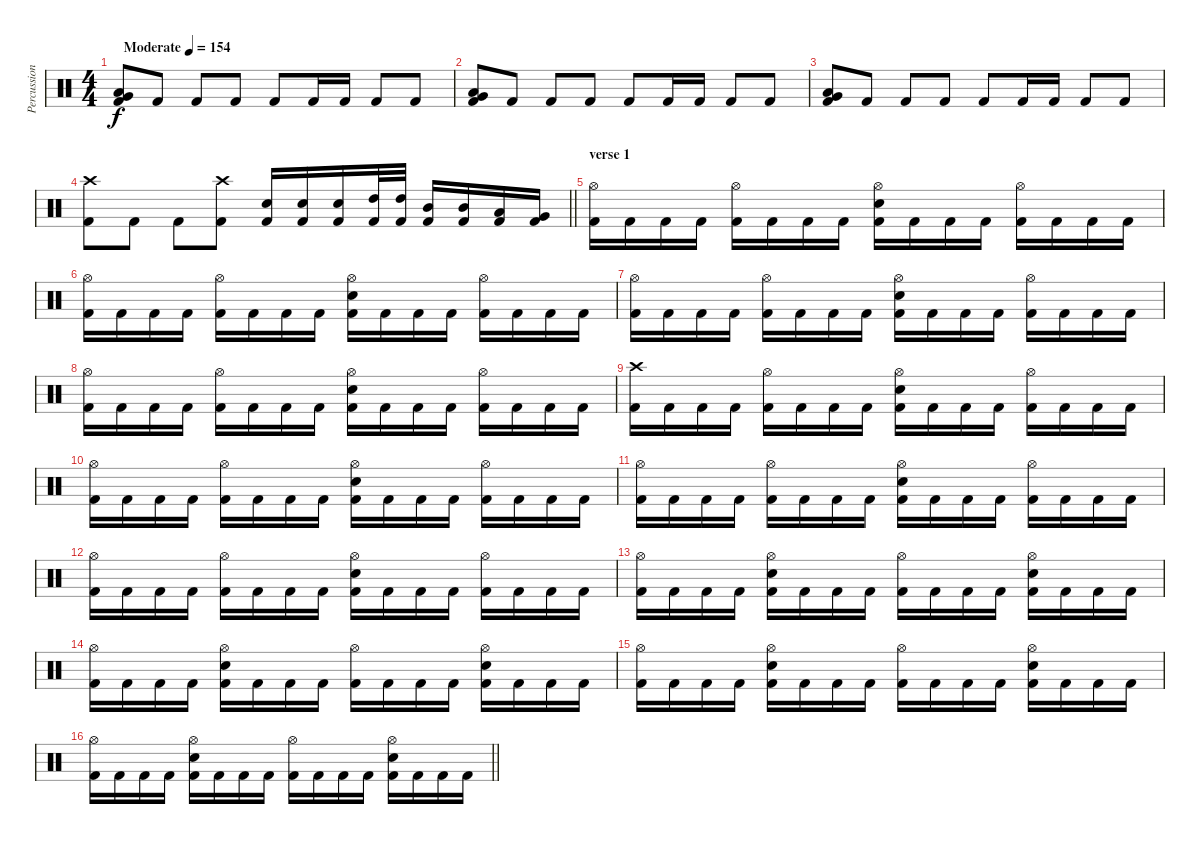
\track ("Percussion" "Percussion") {instrument percussion}
\staff {score}
\articulation defaults
\ts (4 4)
\tempo (154 "Moderate")
\clef neutral
\ks c
("Kick (hit) 2" "Low Tom (hit)" "Very Low Tom (hit)").8{dy f} "Kick (hit) 2".8 "Kick (hit) 2".8 "Kick (hit) 2".8 "Kick (hit) 2".8 "Kick (hit) 2".16 "Kick (hit) 2".16 "Kick (hit) 2".8 "Kick (hit) 2".8 |
("Kick (hit) 2" "Low Tom (hit)" "Very Low Tom (hit)").8 "Kick (hit) 2".8 "Kick (hit) 2".8 "Kick (hit) 2".8 "Kick (hit) 2".8 "Kick (hit) 2".16 "Kick (hit) 2".16 "Kick (hit) 2".8 "Kick (hit) 2".8 |
("Kick (hit) 2" "Low Tom (hit)" "Very Low Tom (hit)").8 "Kick (hit) 2".8 "Kick (hit) 2".8 "Kick (hit) 2".8 "Kick (hit) 2".8 "Kick (hit) 2".16 "Kick (hit) 2".16 "Kick (hit) 2".8 "Kick (hit) 2".8 |
\barLineRight lightlight
("Kick (hit) 2" "Crash high (hit)").8 "Kick (hit) 2".8 "Kick (hit) 2".8 ("Kick (hit) 2" "Crash high (hit)").8 ("Kick (hit) 2" "Electric Snare (hit)").16 ("Kick (hit) 2" "Electric Snare (hit)").16 ("Kick (hit) 2" "Electric Snare (hit)").16 ("Kick (hit) 2" "High Tom (hit)").32 ("Kick (hit) 2" "High Tom (hit)").32 ("Kick (hit) 2" "Mid Tom (hit)").16 ("Kick (hit) 2" "Mid Tom (hit)").16 ("Kick (hit) 2" "Low Tom (hit)").16 ("Kick (hit) 2" "Very Low Tom (hit)").16 |
\section ("" "verse 1")
("Kick (hit) 2" "Hi-Hat (open)").16 "Kick (hit) 2".16 "Kick (hit) 2".16 "Kick (hit) 2".16 ("Kick (hit) 2" "Hi-Hat (open)").16 "Kick (hit) 2".16 "Kick (hit) 2".16 "Kick (hit) 2".16 ("Kick (hit) 2" "Hi-Hat (open)" "Electric Snare (hit)").16 "Kick (hit) 2".16 "Kick (hit) 2".16 "Kick (hit) 2".16 ("Kick (hit) 2" "Hi-Hat (open)").16 "Kick (hit) 2".16 "Kick (hit) 2".16 "Kick (hit) 2".16 |
("Kick (hit) 2" "Hi-Hat (open)").16 "Kick (hit) 2".16 "Kick (hit) 2".16 "Kick (hit) 2".16 ("Kick (hit) 2" "Hi-Hat (open)").16 "Kick (hit) 2".16 "Kick (hit) 2".16 "Kick (hit) 2".16 ("Kick (hit) 2" "Hi-Hat (open)" "Electric Snare (hit)").16 "Kick (hit) 2".16 "Kick (hit) 2".16 "Kick (hit) 2".16 ("Kick (hit) 2" "Hi-Hat (open)").16 "Kick (hit) 2".16 "Kick (hit) 2".16 "Kick (hit) 2".16 |
("Kick (hit) 2" "Hi-Hat (open)").16 "Kick (hit) 2".16 "Kick (hit) 2".16 "Kick (hit) 2".16 ("Kick (hit) 2" "Hi-Hat (open)").16 "Kick (hit) 2".16 "Kick (hit) 2".16 "Kick (hit) 2".16 ("Kick (hit) 2" "Hi-Hat (open)" "Electric Snare (hit)").16 "Kick (hit) 2".16 "Kick (hit) 2".16 "Kick (hit) 2".16 ("Kick (hit) 2" "Hi-Hat (open)").16 "Kick (hit) 2".16 "Kick (hit) 2".16 "Kick (hit) 2".16 |
("Kick (hit) 2" "Hi-Hat (open)").16 "Kick (hit) 2".16 "Kick (hit) 2".16 "Kick (hit) 2".16 ("Kick (hit) 2" "Hi-Hat (open)").16 "Kick (hit) 2".16 "Kick (hit) 2".16 "Kick (hit) 2".16 ("Kick (hit) 2" "Hi-Hat (open)" "Electric Snare (hit)").16 "Kick (hit) 2".16 "Kick (hit) 2".16 "Kick (hit) 2".16 ("Kick (hit) 2" "Hi-Hat (open)").16 "Kick (hit) 2".16 "Kick (hit) 2".16 "Kick (hit) 2".16 |
("Kick (hit) 2" "Crash high (hit)").16 "Kick (hit) 2".16 "Kick (hit) 2".16 "Kick (hit) 2".16 ("Kick (hit) 2" "Hi-Hat (open)").16 "Kick (hit) 2".16 "Kick (hit) 2".16 "Kick (hit) 2".16 ("Kick (hit) 2" "Hi-Hat (open)" "Electric Snare (hit)").16 "Kick (hit) 2".16 "Kick (hit) 2".16 "Kick (hit) 2".16 ("Kick (hit) 2" "Hi-Hat (open)").16 "Kick (hit) 2".16 "Kick (hit) 2".16 "Kick (hit) 2".16 |
("Kick (hit) 2" "Hi-Hat (open)").16 "Kick (hit) 2".16 "Kick (hit) 2".16 "Kick (hit) 2".16 ("Kick (hit) 2" "Hi-Hat (open)").16 "Kick (hit) 2".16 "Kick (hit) 2".16 "Kick (hit) 2".16 ("Kick (hit) 2" "Hi-Hat (open)" "Electric Snare (hit)").16 "Kick (hit) 2".16 "Kick (hit) 2".16 "Kick (hit) 2".16 ("Kick (hit) 2" "Hi-Hat (open)").16 "Kick (hit) 2".16 "Kick (hit) 2".16 "Kick (hit) 2".16 |
("Kick (hit) 2" "Hi-Hat (open)").16 "Kick (hit) 2".16 "Kick (hit) 2".16 "Kick (hit) 2".16 ("Kick (hit) 2" "Hi-Hat (open)").16 "Kick (hit) 2".16 "Kick (hit) 2".16 "Kick (hit) 2".16 ("Kick (hit) 2" "Hi-Hat (open)" "Electric Snare (hit)").16 "Kick (hit) 2".16 "Kick (hit) 2".16 "Kick (hit) 2".16 ("Kick (hit) 2" "Hi-Hat (open)").16 "Kick (hit) 2".16 "Kick (hit) 2".16 "Kick (hit) 2".16 |
("Kick (hit) 2" "Hi-Hat (open)").16 "Kick (hit) 2".16 "Kick (hit) 2".16 "Kick (hit) 2".16 ("Kick (hit) 2" "Hi-Hat (open)").16 "Kick (hit) 2".16 "Kick (hit) 2".16 "Kick (hit) 2".16 ("Kick (hit) 2" "Hi-Hat (open)" "Electric Snare (hit)").16 "Kick (hit) 2".16 "Kick (hit) 2".16 "Kick (hit) 2".16 ("Kick (hit) 2" "Hi-Hat (open)").16 "Kick (hit) 2".16 "Kick (hit) 2".16 "Kick (hit) 2".16 |
("Kick (hit) 2" "Hi-Hat (open)").16 "Kick (hit) 2".16 "Kick (hit) 2".16 "Kick (hit) 2".16 ("Kick (hit) 2" "Hi-Hat (open)" "Electric Snare (hit)").16 "Kick (hit) 2".16 "Kick (hit) 2".16 "Kick (hit) 2".16 ("Kick (hit) 2" "Hi-Hat (open)").16 "Kick (hit) 2".16 "Kick (hit) 2".16 "Kick (hit) 2".16 ("Kick (hit) 2" "Hi-Hat (open)" "Electric Snare (hit)").16 "Kick (hit) 2".16 "Kick (hit) 2".16 "Kick (hit) 2".16 |
("Kick (hit) 2" "Hi-Hat (open)").16 "Kick (hit) 2".16 "Kick (hit) 2".16 "Kick (hit) 2".16 ("Kick (hit) 2" "Hi-Hat (open)" "Electric Snare (hit)").16 "Kick (hit) 2".16 "Kick (hit) 2".16 "Kick (hit) 2".16 ("Kick (hit) 2" "Hi-Hat (open)").16 "Kick (hit) 2".16 "Kick (hit) 2".16 "Kick (hit) 2".16 ("Kick (hit) 2" "Hi-Hat (open)" "Electric Snare (hit)").16 "Kick (hit) 2".16 "Kick (hit) 2".16 "Kick (hit) 2".16 |
("Kick (hit) 2" "Hi-Hat (open)").16 "Kick (hit) 2".16 "Kick (hit) 2".16 "Kick (hit) 2".16 ("Kick (hit) 2" "Hi-Hat (open)" "Electric Snare (hit)").16 "Kick (hit) 2".16 "Kick (hit) 2".16 "Kick (hit) 2".16 ("Kick (hit) 2" "Hi-Hat (open)").16 "Kick (hit) 2".16 "Kick (hit) 2".16 "Kick (hit) 2".16 ("Kick (hit) 2" "Hi-Hat (open)" "Electric Snare (hit)").16 "Kick (hit) 2".16 "Kick (hit) 2".16 "Kick (hit) 2".16 |
\barLineRight lightlight
("Kick (hit) 2" "Hi-Hat (open)").16 "Kick (hit) 2".16 "Kick (hit) 2".16 "Kick (hit) 2".16 ("Kick (hit) 2" "Hi-Hat (open)" "Electric Snare (hit)").16 "Kick (hit) 2".16 "Kick (hit) 2".16 "Kick (hit) 2".16 ("Kick (hit) 2" "Hi-Hat (open)").16 "Kick (hit) 2".16 "Kick (hit) 2".16 "Kick (hit) 2".16 ("Kick (hit) 2" "Hi-Hat (open)" "Electric Snare (hit)").16 "Kick (hit) 2".16 "Kick (hit) 2".16 "Kick (hit) 2".16
